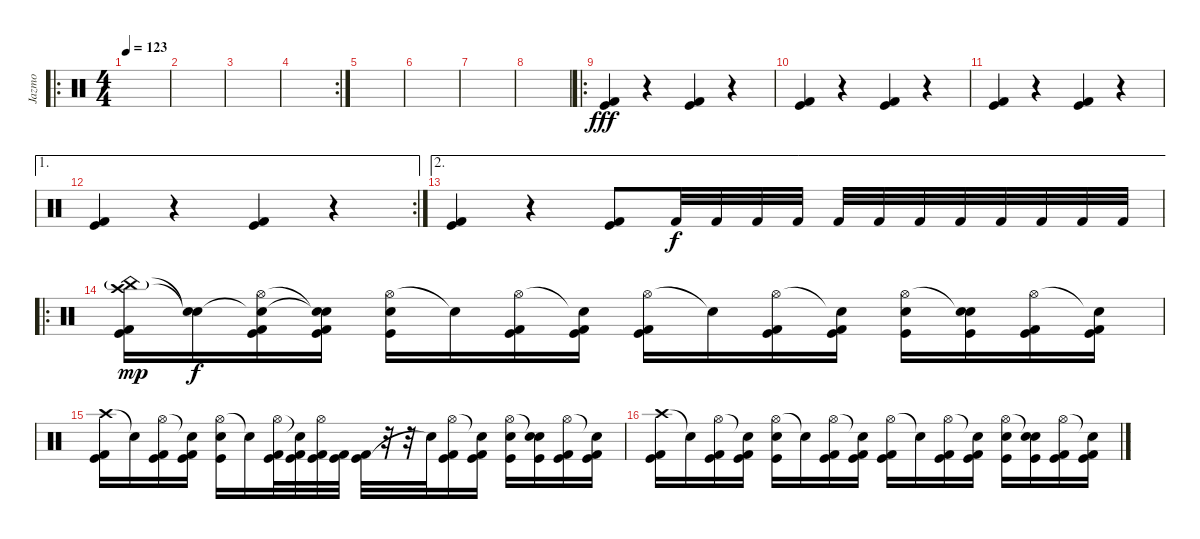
\track ("Jazmo" "Jazmo") {instrument percussion}
\staff {score}
\articulation defaults
\ro
\ts (4 4)
\tempo 123
\clef neutral
\ks c
|
|
|
\rc 2
|
|
|
|
|
\ro
("Kick (hit)" "Kick (hit) 2").4{dy fff} r.4 ("Kick (hit)" "Kick (hit) 2").4 r.4 |
("Kick (hit)" "Kick (hit) 2").4 r.4 ("Kick (hit)" "Kick (hit) 2").4 r.4 |
("Kick (hit)" "Kick (hit) 2").4 r.4 ("Kick (hit)" "Kick (hit) 2").4 r.4 |
\ae 1
\rc 2
("Kick (hit)" "Kick (hit) 2").4 r.4 ("Kick (hit)" "Kick (hit) 2").4 r.4 |
\ae 2
("Kick (hit)" "Kick (hit) 2").4 r.4 ("Kick (hit)" "Kick (hit) 2").8 "Kick (hit) 2".32{dy f} "Kick (hit) 2".32 "Kick (hit) 2".32 "Kick (hit) 2".32 "Kick (hit) 2".32 "Kick (hit) 2".32 "Kick (hit) 2".32 "Kick (hit) 2".32 "Kick (hit) 2".32 "Kick (hit) 2".32 "Kick (hit) 2".32 "Kick (hit) 2".32 |
\ro
("Crash high (hit)" "China (hit)"{g} "Kick (hit)" "Kick (hit) 2").16{dy mp} ("Snare (hit)"{t} "Snare (hit)"{t}).16{dy f} ("Hi-Hat (open)" "Snare (hit)"{t} "Kick (hit)" "Kick (hit) 2").16 ("Snare (hit)"{t} "Snare (hit)"{t} "Kick (hit)" "Kick (hit) 2").16 ("Hi-Hat (open)" "Kick (hit)" "Electric Snare (hit)").16 "Snare (hit)"{t}.16 ("Hi-Hat (open)" "Kick (hit)" "Kick (hit) 2").16 ("Snare (hit)"{t} "Kick (hit)" "Kick (hit) 2").16 ("Hi-Hat (open)" "Kick (hit)" "Kick (hit) 2").16 "Snare (hit)"{t}.16 ("Hi-Hat (open)" "Kick (hit)" "Kick (hit) 2").16 ("Snare (hit)"{t} "Kick (hit)" "Kick (hit) 2").16 ("Hi-Hat (open)" "Kick (hit)" "Electric Snare (hit)").16 ("Snare (hit)"{t} "Kick (hit)" "Electric Snare (hit)").16 ("Hi-Hat (open)" "Kick (hit)" "Kick (hit) 2").16 ("Snare (hit)"{t} "Kick (hit)" "Kick (hit) 2").16 |
("Crash high (hit)" "Kick (hit)" "Kick (hit) 2").16 "Snare (hit)"{t}.16 ("Hi-Hat (open)" "Kick (hit)" "Kick (hit) 2").16 ("Snare (hit)"{t} "Kick (hit)" "Kick (hit) 2").16 ("Hi-Hat (open)" "Kick (hit)" "Electric Snare (hit)").16 "Snare (hit)"{t}.16 ("Hi-Hat (open)" "Kick (hit)" "Kick (hit) 2").32 ("Snare (hit)"{t} "Kick (hit)" "Kick (hit) 2").32 ("Hi-Hat (open)" "Kick (hit)" "Kick (hit) 2").32 ("Kick (hit)" "Kick (hit) 2").32 ("Kick (hit)" "Kick (hit) 2").32 r.32 r.32 "Snare (hit)"{t}.32 ("Hi-Hat (open)" "Kick (hit)" "Kick (hit) 2").16 ("Snare (hit)"{t} "Kick (hit)" "Kick (hit) 2").16 ("Hi-Hat (open)" "Kick (hit)" "Electric Snare (hit)").16 ("Snare (hit)"{t} "Kick (hit)" "Electric Snare (hit)").16 ("Hi-Hat (open)" "Kick (hit)" "Kick (hit) 2").16 ("Snare (hit)"{t} "Kick (hit)" "Kick (hit) 2").16 |
("Crash high (hit)" "Kick (hit)" "Kick (hit) 2").16 "Snare (hit)"{t}.16 ("Hi-Hat (open)" "Kick (hit)" "Kick (hit) 2").16 ("Snare (hit)"{t} "Kick (hit)" "Kick (hit) 2").16 ("Hi-Hat (open)" "Kick (hit)" "Electric Snare (hit)").16 "Snare (hit)"{t}.16 ("Hi-Hat (open)" "Kick (hit)" "Kick (hit) 2").16 ("Snare (hit)"{t} "Kick (hit)" "Kick (hit) 2").16 ("Hi-Hat (open)" "Kick (hit)" "Kick (hit) 2").16 "Snare (hit)"{t}.16 ("Hi-Hat (open)" "Kick (hit)" "Kick (hit) 2").16 ("Snare (hit)"{t} "Kick (hit)" "Kick (hit) 2").16 ("Hi-Hat (open)" "Kick (hit)" "Electric Snare (hit)").16 ("Snare (hit)"{t} "Kick (hit)" "Electric Snare (hit)").16 ("Hi-Hat (open)" "Kick (hit)" "Kick (hit) 2").16 ("Snare (hit)"{t} "Kick (hit)" "Kick (hit) 2").16
